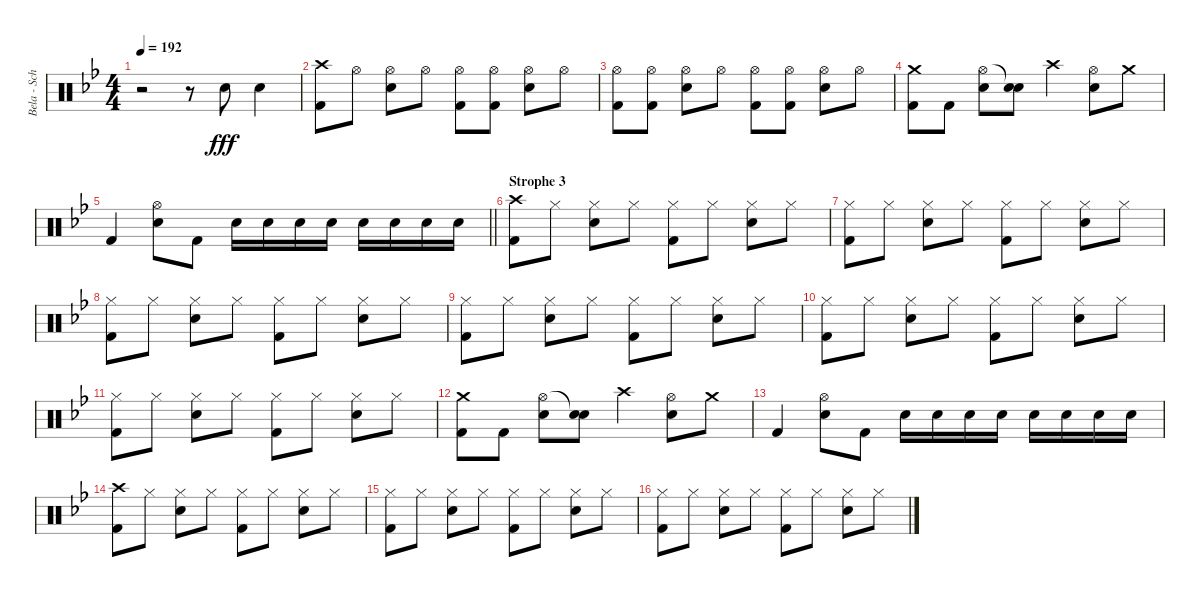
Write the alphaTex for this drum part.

\track ("Bela - Schlagzeug" "Bela - Sch") {instrument percussion}
\staff {score}
\articulation defaults
\ts (4 4)
\tempo 192
\clef neutral
\ks bb
r.2{dy fff} r.8 "Snare (hit) 2".8 "Snare (hit) 2".4 |
("Crash high (hit)" "Kick (hit) 2").8 "Hi-Hat (open)".8 ("Hi-Hat (open)" "Snare (hit) 2").8 "Hi-Hat (open)".8 ("Hi-Hat (open)" "Kick (hit) 2").8 ("Hi-Hat (open)" "Kick (hit) 2").8 ("Hi-Hat (open)" "Snare (hit) 2").8 "Hi-Hat (open)".8 |
("Hi-Hat (open)" "Kick (hit) 2").8 ("Hi-Hat (open)" "Kick (hit) 2").8 ("Hi-Hat (open)" "Snare (hit) 2").8 "Hi-Hat (open)".8 ("Hi-Hat (open)" "Kick (hit) 2").8 ("Hi-Hat (open)" "Kick (hit) 2").8 ("Hi-Hat (open)" "Snare (hit) 2").8 "Hi-Hat (open)".8 |
("Crash medium (hit)" "Kick (hit) 2").8 "Kick (hit) 2".8 ("Hi-Hat (open)" "Snare (hit) 2").8 ("Snare (hit)"{t} "Snare (hit) 2").8 "Crash high (hit)".4 ("Hi-Hat (open)" "Snare (hit) 2").8 "Crash medium (hit)".8 |
\barLineRight lightlight "Kick (hit) 2".4
("Hi-Hat (open)" "Snare (hit) 2").8 "Kick (hit) 2".8 "Snare (hit) 2".16 "Snare (hit) 2".16 "Snare (hit) 2".16 "Snare (hit) 2".16 "Snare (hit) 2".16 "Snare (hit) 2".16 "Snare (hit) 2".16 "Snare (hit) 2".16 |
\section ("" "Strophe 3")
("Crash high (hit)" "Kick (hit) 2").8 "Hi-Hat (closed)".8 ("Hi-Hat (closed)" "Snare (hit) 2").8 "Hi-Hat (closed)".8 ("Hi-Hat (closed)" "Kick (hit) 2").8 "Hi-Hat (closed)".8 ("Hi-Hat (closed)" "Snare (hit) 2").8 "Hi-Hat (closed)".8 |
("Hi-Hat (closed)" "Kick (hit) 2").8 "Hi-Hat (closed)".8 ("Hi-Hat (closed)" "Snare (hit) 2").8 "Hi-Hat (closed)".8 ("Hi-Hat (closed)" "Kick (hit) 2").8 "Hi-Hat (closed)".8 ("Hi-Hat (closed)" "Snare (hit) 2").8 "Hi-Hat (closed)".8 |
("Hi-Hat (closed)" "Kick (hit) 2").8 "Hi-Hat (closed)".8 ("Hi-Hat (closed)" "Snare (hit) 2").8 "Hi-Hat (closed)".8 ("Hi-Hat (closed)" "Kick (hit) 2").8 "Hi-Hat (closed)".8 ("Hi-Hat (closed)" "Snare (hit) 2").8 "Hi-Hat (closed)".8 |
("Hi-Hat (closed)" "Kick (hit) 2").8 "Hi-Hat (closed)".8 ("Hi-Hat (closed)" "Snare (hit) 2").8 "Hi-Hat (closed)".8 ("Hi-Hat (closed)" "Kick (hit) 2").8 "Hi-Hat (closed)".8 ("Hi-Hat (closed)" "Snare (hit) 2").8 "Hi-Hat (closed)".8 |
("Hi-Hat (closed)" "Kick (hit) 2").8 "Hi-Hat (closed)".8 ("Hi-Hat (closed)" "Snare (hit) 2").8 "Hi-Hat (closed)".8 ("Hi-Hat (closed)" "Kick (hit) 2").8 "Hi-Hat (closed)".8 ("Hi-Hat (closed)" "Snare (hit) 2").8 "Hi-Hat (closed)".8 |
("Hi-Hat (closed)" "Kick (hit) 2").8 "Hi-Hat (closed)".8 ("Hi-Hat (closed)" "Snare (hit) 2").8 "Hi-Hat (closed)".8 ("Hi-Hat (closed)" "Kick (hit) 2").8 "Hi-Hat (closed)".8 ("Hi-Hat (closed)" "Snare (hit) 2").8 "Hi-Hat (closed)".8 |
("Crash medium (hit)" "Kick (hit) 2").8 "Kick (hit) 2".8 ("Hi-Hat (open)" "Snare (hit) 2").8 ("Snare (hit)"{t} "Snare (hit) 2").8 "Crash high (hit)".4 ("Hi-Hat (open)" "Snare (hit) 2").8 "Crash medium (hit)".8 |
"Kick (hit) 2".4 ("Hi-Hat (open)" "Snare (hit) 2").8 "Kick (hit) 2".8 "Snare (hit) 2".16 "Snare (hit) 2".16 "Snare (hit) 2".16 "Snare (hit) 2".16 "Snare (hit) 2".16 "Snare (hit) 2".16 "Snare (hit) 2".16 "Snare (hit) 2".16 |
("Crash high (hit)" "Kick (hit) 2").8 "Hi-Hat (closed)".8 ("Hi-Hat (closed)" "Snare (hit) 2").8 "Hi-Hat (closed)".8 ("Hi-Hat (closed)" "Kick (hit) 2").8 "Hi-Hat (closed)".8 ("Hi-Hat (closed)" "Snare (hit) 2").8 "Hi-Hat (closed)".8 |
("Hi-Hat (closed)" "Kick (hit) 2").8 "Hi-Hat (closed)".8 ("Hi-Hat (closed)" "Snare (hit) 2").8 "Hi-Hat (closed)".8 ("Hi-Hat (closed)" "Kick (hit) 2").8 "Hi-Hat (closed)".8 ("Hi-Hat (closed)" "Snare (hit) 2").8 "Hi-Hat (closed)".8 |
("Hi-Hat (closed)" "Kick (hit) 2").8 "Hi-Hat (closed)".8 ("Hi-Hat (closed)" "Snare (hit) 2").8 "Hi-Hat (closed)".8 ("Hi-Hat (closed)" "Kick (hit) 2").8 "Hi-Hat (closed)".8 ("Hi-Hat (closed)" "Snare (hit) 2").8 "Hi-Hat (closed)".8
